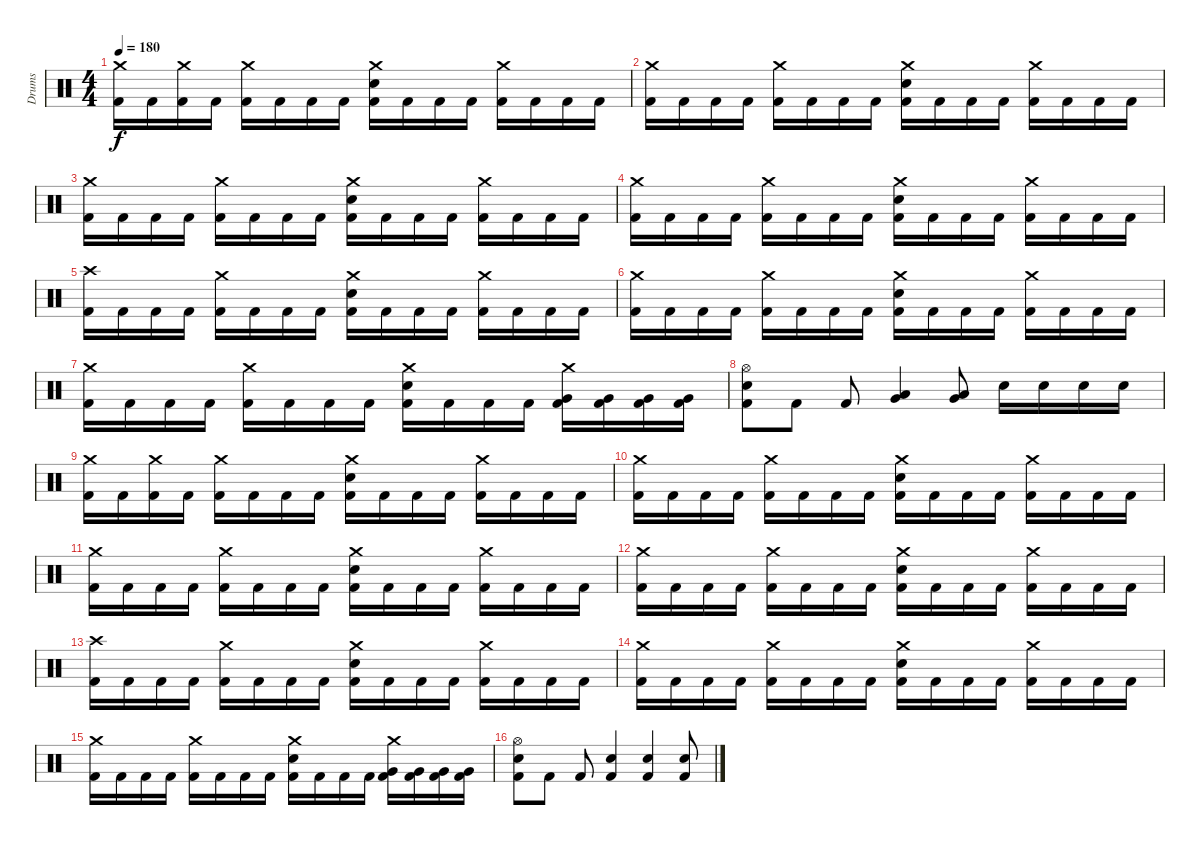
\track ("Drums" "Drums") {instrument percussion}
\staff {score}
\articulation defaults
\ts (4 4)
\tempo 180
\clef neutral
\ks c
("Crash medium (hit)" "Kick (hit) 2").16{dy f} "Kick (hit) 2".16 ("Crash medium (hit)" "Kick (hit) 2").16 "Kick (hit) 2".16 ("Crash medium (hit)" "Kick (hit) 2").16 "Kick (hit) 2".16 "Kick (hit) 2".16 "Kick (hit) 2".16 ("Crash medium (hit)" "Electric Snare (hit)" "Kick (hit) 2").16 "Kick (hit) 2".16 "Kick (hit) 2".16 "Kick (hit) 2".16 ("Crash medium (hit)" "Kick (hit) 2").16 "Kick (hit) 2".16 "Kick (hit) 2".16 "Kick (hit) 2".16 |
("Crash medium (hit)" "Kick (hit) 2").16 "Kick (hit) 2".16 "Kick (hit) 2".16 "Kick (hit) 2".16 ("Crash medium (hit)" "Kick (hit) 2").16 "Kick (hit) 2".16 "Kick (hit) 2".16 "Kick (hit) 2".16 ("Crash medium (hit)" "Electric Snare (hit)" "Kick (hit) 2").16 "Kick (hit) 2".16 "Kick (hit) 2".16 "Kick (hit) 2".16 ("Crash medium (hit)" "Kick (hit) 2").16 "Kick (hit) 2".16 "Kick (hit) 2".16 "Kick (hit) 2".16 |
("Crash medium (hit)" "Kick (hit) 2").16 "Kick (hit) 2".16 "Kick (hit) 2".16 "Kick (hit) 2".16 ("Crash medium (hit)" "Kick (hit) 2").16 "Kick (hit) 2".16 "Kick (hit) 2".16 "Kick (hit) 2".16 ("Crash medium (hit)" "Electric Snare (hit)" "Kick (hit) 2").16 "Kick (hit) 2".16 "Kick (hit) 2".16 "Kick (hit) 2".16 ("Crash medium (hit)" "Kick (hit) 2").16 "Kick (hit) 2".16 "Kick (hit) 2".16 "Kick (hit) 2".16 |
("Crash medium (hit)" "Kick (hit) 2").16 "Kick (hit) 2".16 "Kick (hit) 2".16 "Kick (hit) 2".16 ("Crash medium (hit)" "Kick (hit) 2").16 "Kick (hit) 2".16 "Kick (hit) 2".16 "Kick (hit) 2".16 ("Crash medium (hit)" "Electric Snare (hit)" "Kick (hit) 2").16 "Kick (hit) 2".16 "Kick (hit) 2".16 "Kick (hit) 2".16 ("Crash medium (hit)" "Kick (hit) 2").16 "Kick (hit) 2".16 "Kick (hit) 2".16 "Kick (hit) 2".16 |
("Crash high (hit)" "Kick (hit) 2").16 "Kick (hit) 2".16 "Kick (hit) 2".16 "Kick (hit) 2".16 ("Crash medium (hit)" "Kick (hit) 2").16 "Kick (hit) 2".16 "Kick (hit) 2".16 "Kick (hit) 2".16 ("Crash medium (hit)" "Electric Snare (hit)" "Kick (hit) 2").16 "Kick (hit) 2".16 "Kick (hit) 2".16 "Kick (hit) 2".16 ("Crash medium (hit)" "Kick (hit) 2").16 "Kick (hit) 2".16 "Kick (hit) 2".16 "Kick (hit) 2".16 |
("Crash medium (hit)" "Kick (hit) 2").16 "Kick (hit) 2".16 "Kick (hit) 2".16 "Kick (hit) 2".16 ("Crash medium (hit)" "Kick (hit) 2").16 "Kick (hit) 2".16 "Kick (hit) 2".16 "Kick (hit) 2".16 ("Crash medium (hit)" "Electric Snare (hit)" "Kick (hit) 2").16 "Kick (hit) 2".16 "Kick (hit) 2".16 "Kick (hit) 2".16 ("Crash medium (hit)" "Kick (hit) 2").16 "Kick (hit) 2".16 "Kick (hit) 2".16 "Kick (hit) 2".16 |
("Crash medium (hit)" "Kick (hit) 2").16 "Kick (hit) 2".16 "Kick (hit) 2".16 "Kick (hit) 2".16 ("Crash medium (hit)" "Kick (hit) 2").16 "Kick (hit) 2".16 "Kick (hit) 2".16 "Kick (hit) 2".16 ("Crash medium (hit)" "Electric Snare (hit)" "Kick (hit) 2").16 "Kick (hit) 2".16 "Kick (hit) 2".16 "Kick (hit) 2".16 ("Crash medium (hit)" "Very Low Tom (hit)" "Kick (hit) 2").16 ("Very Low Tom (hit)" "Kick (hit) 2").16 ("Very Low Tom (hit)" "Kick (hit) 2").16 ("Very Low Tom (hit)" "Kick (hit) 2").16 |
("Hi-Hat (open)" "Electric Snare (hit)" "Kick (hit) 2").8 "Kick (hit) 2".8 "Kick (hit) 2".8 ("Low Tom (hit)" "Very Low Tom (hit)").4 ("Low Tom (hit)" "Very Low Tom (hit)").8 "Electric Snare (hit)".16 "Electric Snare (hit)".16 "Electric Snare (hit)".16 "Electric Snare (hit)".16 |
("Crash medium (hit)" "Kick (hit) 2").16 "Kick (hit) 2".16 ("Crash medium (hit)" "Kick (hit) 2").16 "Kick (hit) 2".16 ("Crash medium (hit)" "Kick (hit) 2").16 "Kick (hit) 2".16 "Kick (hit) 2".16 "Kick (hit) 2".16 ("Crash medium (hit)" "Electric Snare (hit)" "Kick (hit) 2").16 "Kick (hit) 2".16 "Kick (hit) 2".16 "Kick (hit) 2".16 ("Crash medium (hit)" "Kick (hit) 2").16 "Kick (hit) 2".16 "Kick (hit) 2".16 "Kick (hit) 2".16 |
("Crash medium (hit)" "Kick (hit) 2").16 "Kick (hit) 2".16 "Kick (hit) 2".16 "Kick (hit) 2".16 ("Crash medium (hit)" "Kick (hit) 2").16 "Kick (hit) 2".16 "Kick (hit) 2".16 "Kick (hit) 2".16 ("Crash medium (hit)" "Electric Snare (hit)" "Kick (hit) 2").16 "Kick (hit) 2".16 "Kick (hit) 2".16 "Kick (hit) 2".16 ("Crash medium (hit)" "Kick (hit) 2").16 "Kick (hit) 2".16 "Kick (hit) 2".16 "Kick (hit) 2".16 |
("Crash medium (hit)" "Kick (hit) 2").16 "Kick (hit) 2".16 "Kick (hit) 2".16 "Kick (hit) 2".16 ("Crash medium (hit)" "Kick (hit) 2").16 "Kick (hit) 2".16 "Kick (hit) 2".16 "Kick (hit) 2".16 ("Crash medium (hit)" "Electric Snare (hit)" "Kick (hit) 2").16 "Kick (hit) 2".16 "Kick (hit) 2".16 "Kick (hit) 2".16 ("Crash medium (hit)" "Kick (hit) 2").16 "Kick (hit) 2".16 "Kick (hit) 2".16 "Kick (hit) 2".16 |
("Crash medium (hit)" "Kick (hit) 2").16 "Kick (hit) 2".16 "Kick (hit) 2".16 "Kick (hit) 2".16 ("Crash medium (hit)" "Kick (hit) 2").16 "Kick (hit) 2".16 "Kick (hit) 2".16 "Kick (hit) 2".16 ("Crash medium (hit)" "Electric Snare (hit)" "Kick (hit) 2").16 "Kick (hit) 2".16 "Kick (hit) 2".16 "Kick (hit) 2".16 ("Crash medium (hit)" "Kick (hit) 2").16 "Kick (hit) 2".16 "Kick (hit) 2".16 "Kick (hit) 2".16 |
("Crash high (hit)" "Kick (hit) 2").16 "Kick (hit) 2".16 "Kick (hit) 2".16 "Kick (hit) 2".16 ("Crash medium (hit)" "Kick (hit) 2").16 "Kick (hit) 2".16 "Kick (hit) 2".16 "Kick (hit) 2".16 ("Crash medium (hit)" "Electric Snare (hit)" "Kick (hit) 2").16 "Kick (hit) 2".16 "Kick (hit) 2".16 "Kick (hit) 2".16 ("Crash medium (hit)" "Kick (hit) 2").16 "Kick (hit) 2".16 "Kick (hit) 2".16 "Kick (hit) 2".16 |
("Crash medium (hit)" "Kick (hit) 2").16 "Kick (hit) 2".16 "Kick (hit) 2".16 "Kick (hit) 2".16 ("Crash medium (hit)" "Kick (hit) 2").16 "Kick (hit) 2".16 "Kick (hit) 2".16 "Kick (hit) 2".16 ("Crash medium (hit)" "Electric Snare (hit)" "Kick (hit) 2").16 "Kick (hit) 2".16 "Kick (hit) 2".16 "Kick (hit) 2".16 ("Crash medium (hit)" "Kick (hit) 2").16 "Kick (hit) 2".16 "Kick (hit) 2".16 "Kick (hit) 2".16 |
("Crash medium (hit)" "Kick (hit) 2").16 "Kick (hit) 2".16 "Kick (hit) 2".16 "Kick (hit) 2".16 ("Crash medium (hit)" "Kick (hit) 2").16 "Kick (hit) 2".16 "Kick (hit) 2".16 "Kick (hit) 2".16 ("Crash medium (hit)" "Electric Snare (hit)" "Kick (hit) 2").16 "Kick (hit) 2".16 "Kick (hit) 2".16 "Kick (hit) 2".16 ("Crash medium (hit)" "Very Low Tom (hit)" "Kick (hit) 2").16 ("Very Low Tom (hit)" "Kick (hit) 2").16 ("Very Low Tom (hit)" "Kick (hit) 2").16 ("Very Low Tom (hit)" "Kick (hit) 2").16 |
("Hi-Hat (open)" "Electric Snare (hit)" "Kick (hit) 2").8 "Kick (hit) 2".8 "Kick (hit) 2".8 ("Electric Snare (hit)" "Kick (hit) 2").4 ("Electric Snare (hit)" "Kick (hit) 2").4 ("Electric Snare (hit)" "Kick (hit) 2").8
